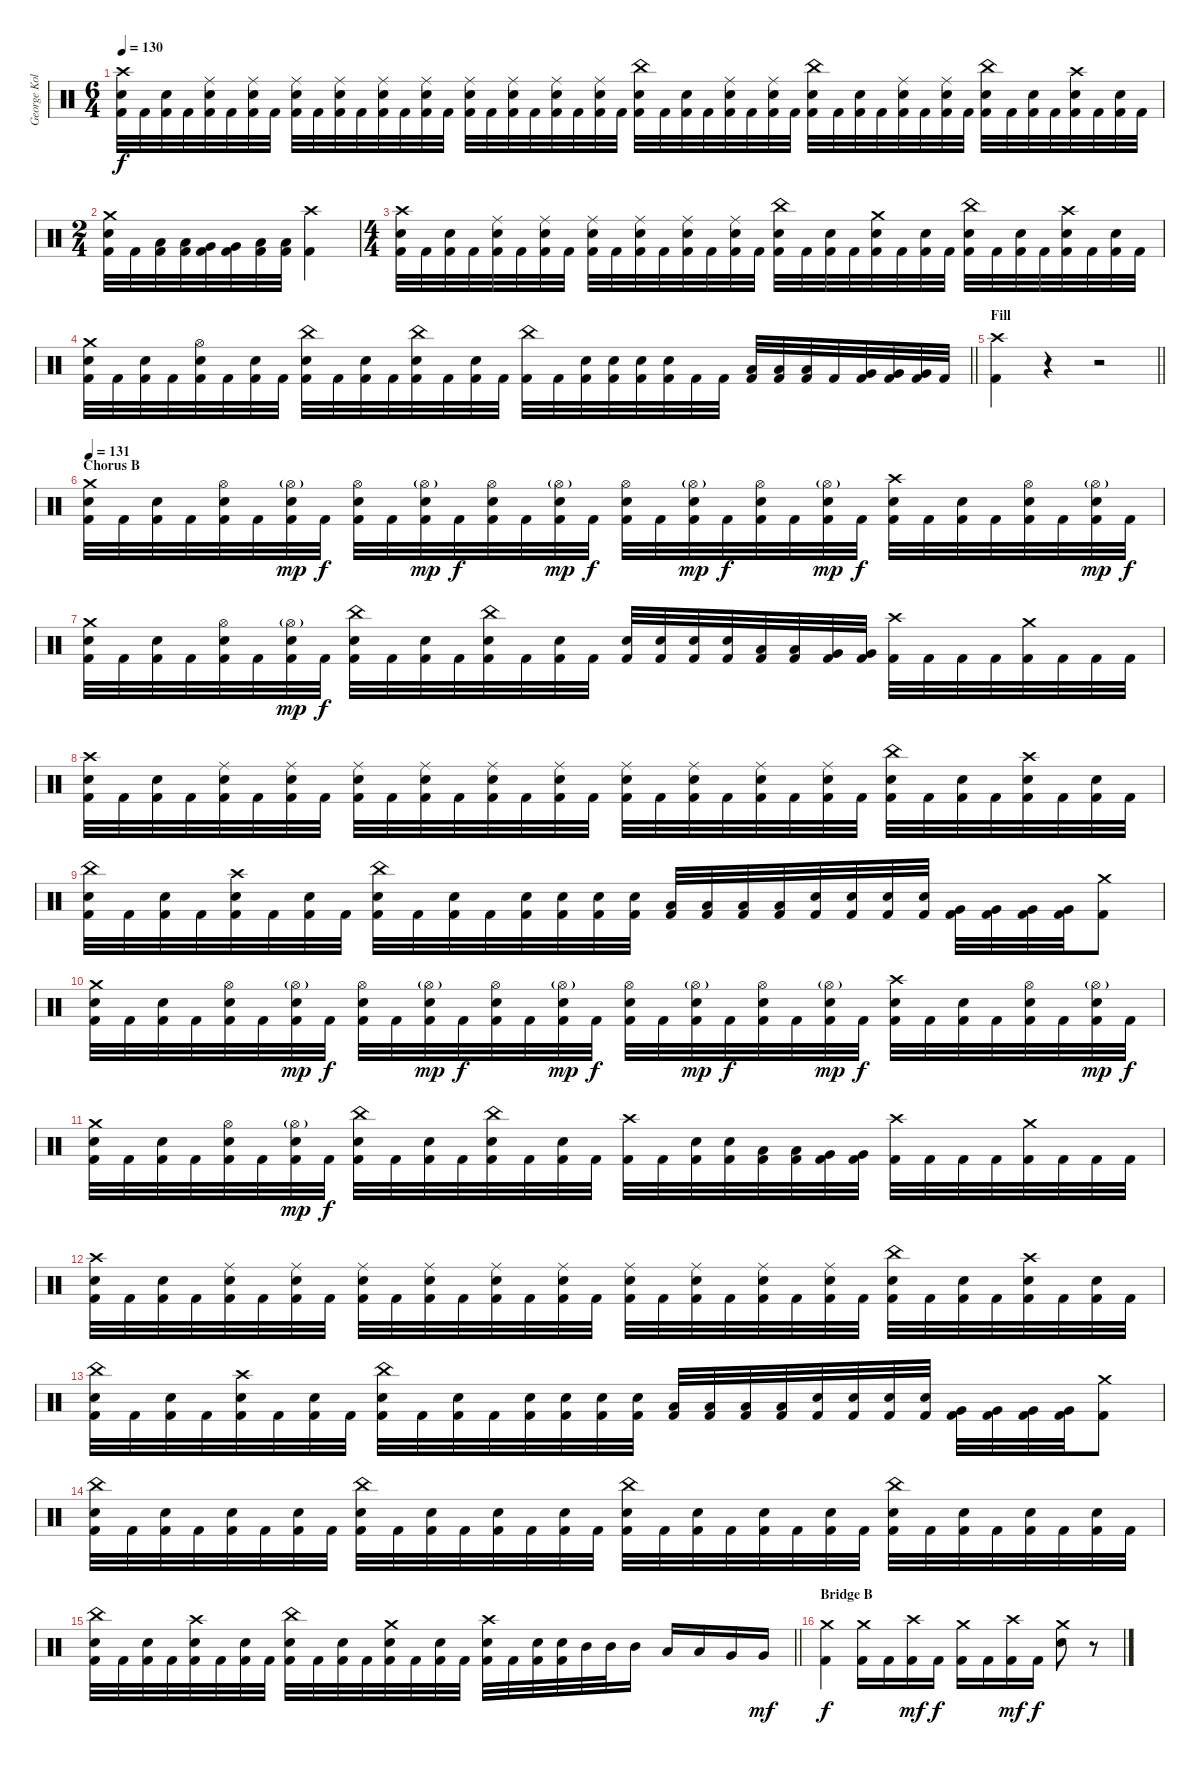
\track ("George Kollias" "George Kol") {instrument percussion}
\staff {score}
\articulation defaults
\ts (6 4)
\tempo 130
\clef neutral
\ks c
("Crash high (hit)" "Electric Snare (hit)" "Kick (hit) 2").32{dy f} "Kick (hit) 2".32 ("Electric Snare (hit)" "Kick (hit) 2").32 "Kick (hit) 2".32 ("Ride (middle)" "Electric Snare (hit)" "Kick (hit) 2").32 "Kick (hit) 2".32 ("Ride (middle)" "Electric Snare (hit)" "Kick (hit) 2").32 "Kick (hit) 2".32 ("Ride (middle)" "Electric Snare (hit)" "Kick (hit) 2").32 "Kick (hit) 2".32 ("Ride (middle)" "Electric Snare (hit)" "Kick (hit) 2").32 "Kick (hit) 2".32 ("Ride (middle)" "Electric Snare (hit)" "Kick (hit) 2").32 "Kick (hit) 2".32 ("Ride (middle)" "Electric Snare (hit)" "Kick (hit) 2").32 "Kick (hit) 2".32 ("Ride (middle)" "Electric Snare (hit)" "Kick (hit) 2").32 "Kick (hit) 2".32 ("Ride (middle)" "Electric Snare (hit)" "Kick (hit) 2").32 "Kick (hit) 2".32 ("Ride (middle)" "Electric Snare (hit)" "Kick (hit) 2").32 "Kick (hit) 2".32 ("Ride (middle)" "Electric Snare (hit)" "Kick (hit) 2").32 "Kick (hit) 2".32 ("China (hit)" "Electric Snare (hit)" "Kick (hit) 2").32 "Kick (hit) 2".32 ("Electric Snare (hit)" "Kick (hit) 2").32 "Kick (hit) 2".32 ("Ride (middle)" "Electric Snare (hit)" "Kick (hit) 2").32 "Kick (hit) 2".32 ("Ride (middle)" "Electric Snare (hit)" "Kick (hit) 2").32 "Kick (hit) 2".32 ("China (hit)" "Electric Snare (hit)" "Kick (hit) 2").32 "Kick (hit) 2".32 ("Electric Snare (hit)" "Kick (hit) 2").32 "Kick (hit) 2".32 ("Ride (middle)" "Electric Snare (hit)" "Kick (hit) 2").32 "Kick (hit) 2".32 ("Ride (middle)" "Electric Snare (hit)" "Kick (hit) 2").32 "Kick (hit) 2".32 ("China (hit)" "Electric Snare (hit)" "Kick (hit) 2").32 "Kick (hit) 2".32 ("Electric Snare (hit)" "Kick (hit) 2").32 "Kick (hit) 2".32 ("Crash high (hit)" "Electric Snare (hit)" "Kick (hit) 2").32 "Kick (hit) 2".32 ("Electric Snare (hit)" "Kick (hit) 2").32 "Kick (hit) 2".32 |
\ts (2 4)
("Crash medium (hit)" "Electric Snare (hit)" "Kick (hit) 2").32 "Kick (hit) 2".32 ("Low Tom (hit)" "Kick (hit) 2").32 ("Low Tom (hit)" "Kick (hit) 2").32 ("Very Low Tom (hit)" "Kick (hit) 2").32 ("Very Low Tom (hit)" "Kick (hit) 2").32 ("Low Floor Tom (hit)" "Kick (hit) 2").32 ("Low Floor Tom (hit)" "Kick (hit) 2").32 ("Crash high (hit)" "Kick (hit) 2").4 |
\ts (4 4)
("Crash high (hit)" "Electric Snare (hit)" "Kick (hit) 2").32 "Kick (hit) 2".32 ("Electric Snare (hit)" "Kick (hit) 2").32 "Kick (hit) 2".32 ("Ride (middle)" "Electric Snare (hit)" "Kick (hit) 2").32 "Kick (hit) 2".32 ("Ride (middle)" "Electric Snare (hit)" "Kick (hit) 2").32 "Kick (hit) 2".32 ("Ride (middle)" "Electric Snare (hit)" "Kick (hit) 2").32 "Kick (hit) 2".32 ("Ride (middle)" "Electric Snare (hit)" "Kick (hit) 2").32 "Kick (hit) 2".32 ("Ride (middle)" "Electric Snare (hit)" "Kick (hit) 2").32 "Kick (hit) 2".32 ("Ride (middle)" "Electric Snare (hit)" "Kick (hit) 2").32 "Kick (hit) 2".32 ("China (hit)" "Electric Snare (hit)" "Kick (hit) 2").32 "Kick (hit) 2".32 ("Electric Snare (hit)" "Kick (hit) 2").32 "Kick (hit) 2".32 ("Crash medium (hit)" "Electric Snare (hit)" "Kick (hit) 2").32 "Kick (hit) 2".32 ("Electric Snare (hit)" "Kick (hit) 2").32 "Kick (hit) 2".32 ("China (hit)" "Electric Snare (hit)" "Kick (hit) 2").32 "Kick (hit) 2".32 ("Electric Snare (hit)" "Kick (hit) 2").32 "Kick (hit) 2".32 ("Crash high (hit)" "Electric Snare (hit)" "Kick (hit) 2").32 "Kick (hit) 2".32 ("Electric Snare (hit)" "Kick (hit) 2").32 "Kick (hit) 2".32 |
\barLineRight lightlight
("Crash medium (hit)" "Electric Snare (hit)" "Kick (hit) 2").32 "Kick (hit) 2".32 ("Electric Snare (hit)" "Kick (hit) 2").32 "Kick (hit) 2".32 ("Hi-Hat (open)" "Electric Snare (hit)" "Kick (hit) 2").32 "Kick (hit) 2".32 ("Electric Snare (hit)" "Kick (hit) 2").32 "Kick (hit) 2".32 ("China (hit)" "Electric Snare (hit)" "Kick (hit) 2").32 "Kick (hit) 2".32 ("Electric Snare (hit)" "Kick (hit) 2").32 "Kick (hit) 2".32 ("China (hit)" "Electric Snare (hit)" "Kick (hit) 2").32 "Kick (hit) 2".32 ("Electric Snare (hit)" "Kick (hit) 2").32 "Kick (hit) 2".32 ("China (hit)" "Kick (hit) 2").32 "Kick (hit) 2".32 ("Electric Snare (hit)" "Kick (hit) 2").32 ("Electric Snare (hit)" "Kick (hit) 2").32 ("Electric Snare (hit)" "Kick (hit) 2").32 ("Electric Snare (hit)" "Kick (hit) 2").32 "Kick (hit) 2".32 "Kick (hit) 2".32 ("Low Tom (hit)" "Kick (hit) 2").32 ("Low Tom (hit)" "Kick (hit) 2").32 ("Low Tom (hit)" "Kick (hit) 2").32 "Kick (hit) 2".32 ("Very Low Tom (hit)" "Kick (hit) 2").32 ("Very Low Tom (hit)" "Kick (hit) 2").32 ("Very Low Tom (hit)" "Kick (hit) 2").32 "Kick (hit) 2".32 |
\section ("" "Fill")
\barLineRight lightlight
("Crash high (hit)" "Kick (hit) 2").4 r.4 r.2 |
\section ("" "Chorus B")
\tempo 131
("Crash medium (hit)" "Electric Snare (hit)" "Kick (hit) 2").32 "Kick (hit) 2".32 ("Electric Snare (hit)" "Kick (hit) 2").32 "Kick (hit) 2".32 ("Hi-Hat (open)" "Electric Snare (hit)" "Kick (hit) 2").32 "Kick (hit) 2".32 ("Hi-Hat (open)"{g} "Electric Snare (hit)" "Kick (hit) 2").32{dy mp} "Kick (hit) 2".32{dy f} ("Hi-Hat (open)" "Electric Snare (hit)" "Kick (hit) 2").32 "Kick (hit) 2".32 ("Hi-Hat (open)"{g} "Electric Snare (hit)" "Kick (hit) 2").32{dy mp} "Kick (hit) 2".32{dy f} ("Hi-Hat (open)" "Electric Snare (hit)" "Kick (hit) 2").32 "Kick (hit) 2".32 ("Hi-Hat (open)"{g} "Electric Snare (hit)" "Kick (hit) 2").32{dy mp} "Kick (hit) 2".32{dy f} ("Hi-Hat (open)" "Electric Snare (hit)" "Kick (hit) 2").32 "Kick (hit) 2".32 ("Hi-Hat (open)"{g} "Electric Snare (hit)" "Kick (hit) 2").32{dy mp} "Kick (hit) 2".32{dy f} ("Hi-Hat (open)" "Electric Snare (hit)" "Kick (hit) 2").32 "Kick (hit) 2".32 ("Hi-Hat (open)"{g} "Electric Snare (hit)" "Kick (hit) 2").32{dy mp} "Kick (hit) 2".32{dy f} ("Crash high (hit)" "Electric Snare (hit)" "Kick (hit) 2").32 "Kick (hit) 2".32 ("Electric Snare (hit)" "Kick (hit) 2").32 "Kick (hit) 2".32 ("Hi-Hat (open)" "Electric Snare (hit)" "Kick (hit) 2").32 "Kick (hit) 2".32 ("Hi-Hat (open)"{g} "Electric Snare (hit)" "Kick (hit) 2").32{dy mp} "Kick (hit) 2".32{dy f} |
("Crash medium (hit)" "Electric Snare (hit)" "Kick (hit) 2").32 "Kick (hit) 2".32 ("Electric Snare (hit)" "Kick (hit) 2").32 "Kick (hit) 2".32 ("Hi-Hat (open)" "Electric Snare (hit)" "Kick (hit) 2").32 "Kick (hit) 2".32 ("Hi-Hat (open)"{g} "Electric Snare (hit)" "Kick (hit) 2").32{dy mp} "Kick (hit) 2".32{dy f} ("China (hit)" "Electric Snare (hit)" "Kick (hit) 2").32 "Kick (hit) 2".32 ("Electric Snare (hit)" "Kick (hit) 2").32 "Kick (hit) 2".32 ("China (hit)" "Electric Snare (hit)" "Kick (hit) 2").32 "Kick (hit) 2".32 ("Electric Snare (hit)" "Kick (hit) 2").32 "Kick (hit) 2".32 ("Electric Snare (hit)" "Kick (hit) 2").32 ("Electric Snare (hit)" "Kick (hit) 2").32 ("Electric Snare (hit)" "Kick (hit) 2").32 ("Electric Snare (hit)" "Kick (hit) 2").32 ("Low Tom (hit)" "Kick (hit) 2").32 ("Low Tom (hit)" "Kick (hit) 2").32 ("Very Low Tom (hit)" "Kick (hit) 2").32 ("Very Low Tom (hit)" "Kick (hit) 2").32 ("Crash high (hit)" "Kick (hit) 2").32 "Kick (hit) 2".32 "Kick (hit) 2".32 "Kick (hit) 2".32 ("Crash medium (hit)" "Kick (hit) 2").32 "Kick (hit) 2".32 "Kick (hit) 2".32 "Kick (hit) 2".32 |
("Crash high (hit)" "Electric Snare (hit)" "Kick (hit) 2").32 "Kick (hit) 2".32 ("Electric Snare (hit)" "Kick (hit) 2").32 "Kick (hit) 2".32 ("Ride (middle)" "Electric Snare (hit)" "Kick (hit) 2").32 "Kick (hit) 2".32 ("Ride (middle)" "Electric Snare (hit)" "Kick (hit) 2").32 "Kick (hit) 2".32 ("Ride (middle)" "Electric Snare (hit)" "Kick (hit) 2").32 "Kick (hit) 2".32 ("Ride (middle)" "Electric Snare (hit)" "Kick (hit) 2").32 "Kick (hit) 2".32 ("Ride (middle)" "Electric Snare (hit)" "Kick (hit) 2").32 "Kick (hit) 2".32 ("Ride (middle)" "Electric Snare (hit)" "Kick (hit) 2").32 "Kick (hit) 2".32 ("Ride (middle)" "Electric Snare (hit)" "Kick (hit) 2").32 "Kick (hit) 2".32 ("Ride (middle)" "Electric Snare (hit)" "Kick (hit) 2").32 "Kick (hit) 2".32 ("Ride (middle)" "Electric Snare (hit)" "Kick (hit) 2").32 "Kick (hit) 2".32 ("Ride (middle)" "Electric Snare (hit)" "Kick (hit) 2").32 "Kick (hit) 2".32 ("China (hit)" "Electric Snare (hit)" "Kick (hit) 2").32 "Kick (hit) 2".32 ("Electric Snare (hit)" "Kick (hit) 2").32 "Kick (hit) 2".32 ("Crash high (hit)" "Electric Snare (hit)" "Kick (hit) 2").32 "Kick (hit) 2".32 ("Electric Snare (hit)" "Kick (hit) 2").32 "Kick (hit) 2".32 |
("China (hit)" "Electric Snare (hit)" "Kick (hit) 2").32 "Kick (hit) 2".32 ("Electric Snare (hit)" "Kick (hit) 2").32 "Kick (hit) 2".32 ("Crash high (hit)" "Electric Snare (hit)" "Kick (hit) 2").32 "Kick (hit) 2".32 ("Electric Snare (hit)" "Kick (hit) 2").32 "Kick (hit) 2".32 ("China (hit)" "Electric Snare (hit)" "Kick (hit) 2").32 "Kick (hit) 2".32 ("Electric Snare (hit)" "Kick (hit) 2").32 "Kick (hit) 2".32 ("Electric Snare (hit)" "Kick (hit) 2").32 ("Electric Snare (hit)" "Kick (hit) 2").32 ("Electric Snare (hit)" "Kick (hit) 2").32 ("Electric Snare (hit)" "Kick (hit) 2").32 ("Low Tom (hit)" "Kick (hit) 2").32 ("Low Tom (hit)" "Kick (hit) 2").32 ("Low Tom (hit)" "Kick (hit) 2").32 ("Low Tom (hit)" "Kick (hit) 2").32 ("Electric Snare (hit)" "Kick (hit) 2").32 ("Electric Snare (hit)" "Kick (hit) 2").32 ("Electric Snare (hit)" "Kick (hit) 2").32 ("Electric Snare (hit)" "Kick (hit) 2").32 ("Very Low Tom (hit)" "Kick (hit) 2").32 ("Very Low Tom (hit)" "Kick (hit) 2").32 ("Very Low Tom (hit)" "Kick (hit) 2").32 ("Very Low Tom (hit)" "Kick (hit) 2").32 ("Crash medium (hit)" "Kick (hit) 2").8 |
("Crash medium (hit)" "Electric Snare (hit)" "Kick (hit) 2").32 "Kick (hit) 2".32 ("Electric Snare (hit)" "Kick (hit) 2").32 "Kick (hit) 2".32 ("Hi-Hat (open)" "Electric Snare (hit)" "Kick (hit) 2").32 "Kick (hit) 2".32 ("Hi-Hat (open)"{g} "Electric Snare (hit)" "Kick (hit) 2").32{dy mp} "Kick (hit) 2".32{dy f} ("Hi-Hat (open)" "Electric Snare (hit)" "Kick (hit) 2").32 "Kick (hit) 2".32 ("Hi-Hat (open)"{g} "Electric Snare (hit)" "Kick (hit) 2").32{dy mp} "Kick (hit) 2".32{dy f} ("Hi-Hat (open)" "Electric Snare (hit)" "Kick (hit) 2").32 "Kick (hit) 2".32 ("Hi-Hat (open)"{g} "Electric Snare (hit)" "Kick (hit) 2").32{dy mp} "Kick (hit) 2".32{dy f} ("Hi-Hat (open)" "Electric Snare (hit)" "Kick (hit) 2").32 "Kick (hit) 2".32 ("Hi-Hat (open)"{g} "Electric Snare (hit)" "Kick (hit) 2").32{dy mp} "Kick (hit) 2".32{dy f} ("Hi-Hat (open)" "Electric Snare (hit)" "Kick (hit) 2").32 "Kick (hit) 2".32 ("Hi-Hat (open)"{g} "Electric Snare (hit)" "Kick (hit) 2").32{dy mp} "Kick (hit) 2".32{dy f} ("Crash high (hit)" "Electric Snare (hit)" "Kick (hit) 2").32 "Kick (hit) 2".32 ("Electric Snare (hit)" "Kick (hit) 2").32 "Kick (hit) 2".32 ("Hi-Hat (open)" "Electric Snare (hit)" "Kick (hit) 2").32 "Kick (hit) 2".32 ("Hi-Hat (open)"{g} "Electric Snare (hit)" "Kick (hit) 2").32{dy mp} "Kick (hit) 2".32{dy f} |
("Crash medium (hit)" "Electric Snare (hit)" "Kick (hit) 2").32 "Kick (hit) 2".32 ("Electric Snare (hit)" "Kick (hit) 2").32 "Kick (hit) 2".32 ("Hi-Hat (open)" "Electric Snare (hit)" "Kick (hit) 2").32 "Kick (hit) 2".32 ("Hi-Hat (open)"{g} "Electric Snare (hit)" "Kick (hit) 2").32{dy mp} "Kick (hit) 2".32{dy f} ("China (hit)" "Electric Snare (hit)" "Kick (hit) 2").32 "Kick (hit) 2".32 ("Electric Snare (hit)" "Kick (hit) 2").32 "Kick (hit) 2".32 ("China (hit)" "Electric Snare (hit)" "Kick (hit) 2").32 "Kick (hit) 2".32 ("Electric Snare (hit)" "Kick (hit) 2").32 "Kick (hit) 2".32 ("Crash high (hit)" "Kick (hit) 2").32 "Kick (hit) 2".32 ("Electric Snare (hit)" "Kick (hit) 2").32 ("Electric Snare (hit)" "Kick (hit) 2").32 ("Low Tom (hit)" "Kick (hit) 2").32 ("Low Tom (hit)" "Kick (hit) 2").32 ("Very Low Tom (hit)" "Kick (hit) 2").32 ("Very Low Tom (hit)" "Kick (hit) 2").32 ("Crash high (hit)" "Kick (hit) 2").32 "Kick (hit) 2".32 "Kick (hit) 2".32 "Kick (hit) 2".32 ("Crash medium (hit)" "Kick (hit) 2").32 "Kick (hit) 2".32 "Kick (hit) 2".32 "Kick (hit) 2".32 |
("Crash high (hit)" "Electric Snare (hit)" "Kick (hit) 2").32 "Kick (hit) 2".32 ("Electric Snare (hit)" "Kick (hit) 2").32 "Kick (hit) 2".32 ("Ride (middle)" "Electric Snare (hit)" "Kick (hit) 2").32 "Kick (hit) 2".32 ("Ride (middle)" "Electric Snare (hit)" "Kick (hit) 2").32 "Kick (hit) 2".32 ("Ride (middle)" "Electric Snare (hit)" "Kick (hit) 2").32 "Kick (hit) 2".32 ("Ride (middle)" "Electric Snare (hit)" "Kick (hit) 2").32 "Kick (hit) 2".32 ("Ride (middle)" "Electric Snare (hit)" "Kick (hit) 2").32 "Kick (hit) 2".32 ("Ride (middle)" "Electric Snare (hit)" "Kick (hit) 2").32 "Kick (hit) 2".32 ("Ride (middle)" "Electric Snare (hit)" "Kick (hit) 2").32 "Kick (hit) 2".32 ("Ride (middle)" "Electric Snare (hit)" "Kick (hit) 2").32 "Kick (hit) 2".32 ("Ride (middle)" "Electric Snare (hit)" "Kick (hit) 2").32 "Kick (hit) 2".32 ("Ride (middle)" "Electric Snare (hit)" "Kick (hit) 2").32 "Kick (hit) 2".32 ("China (hit)" "Electric Snare (hit)" "Kick (hit) 2").32 "Kick (hit) 2".32 ("Electric Snare (hit)" "Kick (hit) 2").32 "Kick (hit) 2".32 ("Crash high (hit)" "Electric Snare (hit)" "Kick (hit) 2").32 "Kick (hit) 2".32 ("Electric Snare (hit)" "Kick (hit) 2").32 "Kick (hit) 2".32 |
("China (hit)" "Electric Snare (hit)" "Kick (hit) 2").32 "Kick (hit) 2".32 ("Electric Snare (hit)" "Kick (hit) 2").32 "Kick (hit) 2".32 ("Crash high (hit)" "Electric Snare (hit)" "Kick (hit) 2").32 "Kick (hit) 2".32 ("Electric Snare (hit)" "Kick (hit) 2").32 "Kick (hit) 2".32 ("China (hit)" "Electric Snare (hit)" "Kick (hit) 2").32 "Kick (hit) 2".32 ("Electric Snare (hit)" "Kick (hit) 2").32 "Kick (hit) 2".32 ("Electric Snare (hit)" "Kick (hit) 2").32 ("Electric Snare (hit)" "Kick (hit) 2").32 ("Electric Snare (hit)" "Kick (hit) 2").32 ("Electric Snare (hit)" "Kick (hit) 2").32 ("Low Tom (hit)" "Kick (hit) 2").32 ("Low Tom (hit)" "Kick (hit) 2").32 ("Low Tom (hit)" "Kick (hit) 2").32 ("Low Tom (hit)" "Kick (hit) 2").32 ("Electric Snare (hit)" "Kick (hit) 2").32 ("Electric Snare (hit)" "Kick (hit) 2").32 ("Electric Snare (hit)" "Kick (hit) 2").32 ("Electric Snare (hit)" "Kick (hit) 2").32 ("Very Low Tom (hit)" "Kick (hit) 2").32 ("Very Low Tom (hit)" "Kick (hit) 2").32 ("Very Low Tom (hit)" "Kick (hit) 2").32 ("Very Low Tom (hit)" "Kick (hit) 2").32 ("Crash medium (hit)" "Kick (hit) 2").8 |
("China (hit)" "Electric Snare (hit)" "Kick (hit) 2").32 "Kick (hit) 2".32 ("Electric Snare (hit)" "Kick (hit) 2").32 "Kick (hit) 2".32 ("Electric Snare (hit)" "Kick (hit) 2").32 "Kick (hit) 2".32 ("Electric Snare (hit)" "Kick (hit) 2").32 "Kick (hit) 2".32 ("China (hit)" "Electric Snare (hit)" "Kick (hit) 2").32 "Kick (hit) 2".32 ("Electric Snare (hit)" "Kick (hit) 2").32 "Kick (hit) 2".32 ("Electric Snare (hit)" "Kick (hit) 2").32 "Kick (hit) 2".32 ("Electric Snare (hit)" "Kick (hit) 2").32 "Kick (hit) 2".32 ("China (hit)" "Electric Snare (hit)" "Kick (hit) 2").32 "Kick (hit) 2".32 ("Electric Snare (hit)" "Kick (hit) 2").32 "Kick (hit) 2".32 ("Electric Snare (hit)" "Kick (hit) 2").32 "Kick (hit) 2".32 ("Electric Snare (hit)" "Kick (hit) 2").32 "Kick (hit) 2".32 ("China (hit)" "Electric Snare (hit)" "Kick (hit) 2").32 "Kick (hit) 2".32 ("Electric Snare (hit)" "Kick (hit) 2").32 "Kick (hit) 2".32 ("Electric Snare (hit)" "Kick (hit) 2").32 "Kick (hit) 2".32 ("Electric Snare (hit)" "Kick (hit) 2").32 "Kick (hit) 2".32 |
\barLineRight lightlight
("China (hit)" "Electric Snare (hit)" "Kick (hit) 2").32 "Kick (hit) 2".32 ("Electric Snare (hit)" "Kick (hit) 2").32 "Kick (hit) 2".32 ("Crash high (hit)" "Electric Snare (hit)" "Kick (hit) 2").32 "Kick (hit) 2".32 ("Electric Snare (hit)" "Kick (hit) 2").32 "Kick (hit) 2".32 ("China (hit)" "Electric Snare (hit)" "Kick (hit) 2").32 "Kick (hit) 2".32 ("Electric Snare (hit)" "Kick (hit) 2").32 "Kick (hit) 2".32 ("Crash medium (hit)" "Electric Snare (hit)" "Kick (hit) 2").32 "Kick (hit) 2".32 ("Electric Snare (hit)" "Kick (hit) 2").32 "Kick (hit) 2".32 ("Crash high (hit)" "Electric Snare (hit)" "Kick (hit) 2").32 "Kick (hit) 2".32 ("Electric Snare (hit)" "Kick (hit) 2").32 ("Electric Snare (hit)" "Kick (hit) 2").32 "Mid Tom (hit)".32 "Mid Tom (hit)".32 "Mid Tom (hit)".16 "Low Tom (hit)".16 "Low Tom (hit)".16 "Very Low Tom (hit)".16 "Very Low Tom (hit)".16{dy mf} |
\section ("" "Bridge B")
("Crash medium (hit)" "Kick (hit) 2").4{dy f} ("Crash medium (hit)" "Kick (hit) 2").16 "Kick (hit) 2".16 ("Crash high (hit)" "Kick (hit) 2").16{dy mf} "Kick (hit) 2".16{dy f} ("Crash medium (hit)" "Kick (hit) 2").16 "Kick (hit) 2".16 ("Crash high (hit)" "Kick (hit) 2").16{dy mf} "Kick (hit) 2".16{dy f} ("Crash medium (hit)" "Electric Snare (hit)").8 r.8
